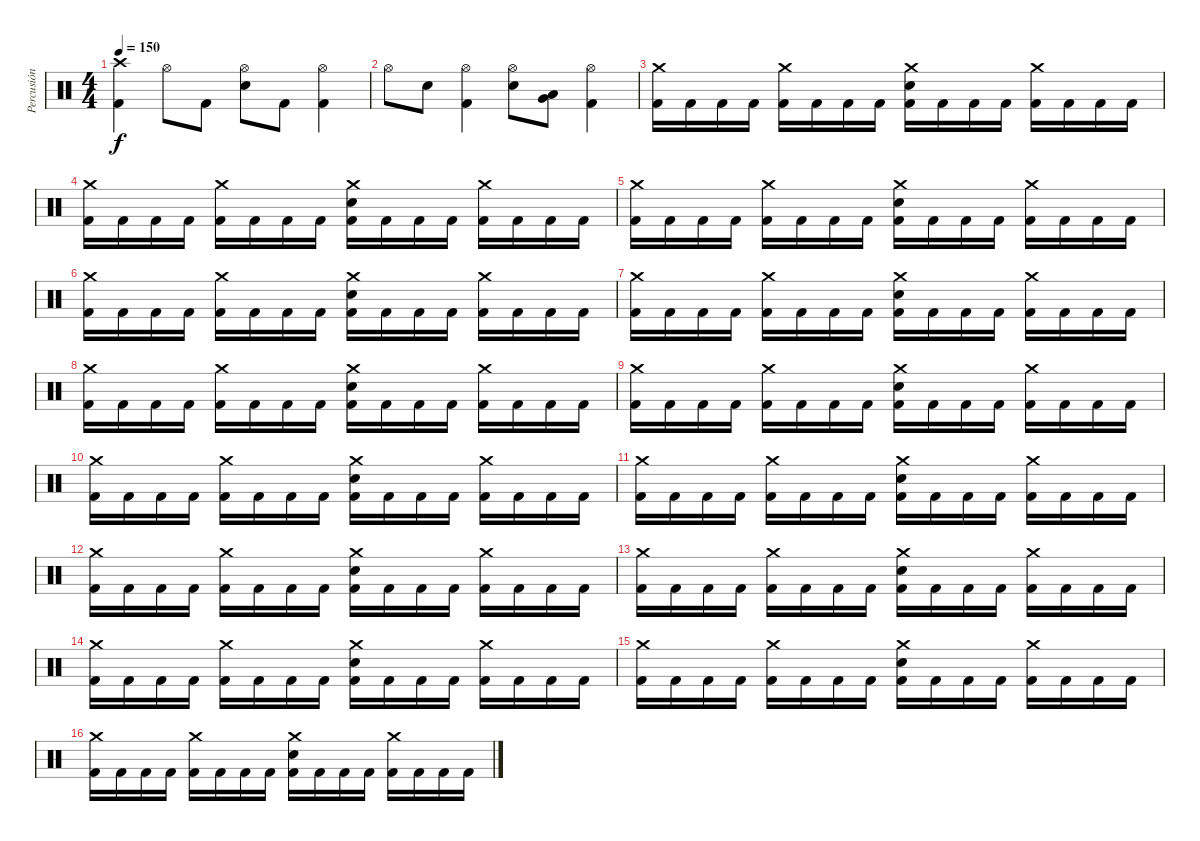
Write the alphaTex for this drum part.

\track ("Percusión" "Percusión") {instrument percussion}
\staff {score}
\articulation defaults
\ts (4 4)
\tempo 150
\clef neutral
\ks c
("Crash high (hit)" "Kick (hit) 2").4{dy f} "Hi-Hat (open)".8 "Kick (hit) 2".8 ("Hi-Hat (open)" "Snare (hit) 2").8 "Kick (hit) 2".8 ("Hi-Hat (open)" "Kick (hit) 2").4 |
"Hi-Hat (open)".8 "Snare (hit) 2".8 ("Hi-Hat (open)" "Kick (hit) 2").4 ("Hi-Hat (open)" "Snare (hit) 2").8 ("Low Floor Tom (hit)" "Very Low Tom (hit)").8 ("Hi-Hat (open)" "Kick (hit) 2").4 |
("Crash medium (hit)" "Kick (hit) 2").16 "Kick (hit) 2".16 "Kick (hit) 2".16 "Kick (hit) 2".16 ("Crash medium (hit)" "Kick (hit) 2").16 "Kick (hit) 2".16 "Kick (hit) 2".16 "Kick (hit) 2".16 ("Snare (hit) 2" "Crash medium (hit)" "Kick (hit) 2").16 "Kick (hit) 2".16 "Kick (hit) 2".16 "Kick (hit) 2".16 ("Crash medium (hit)" "Kick (hit) 2").16 "Kick (hit) 2".16 "Kick (hit) 2".16 "Kick (hit) 2".16 |
("Crash medium (hit)" "Kick (hit) 2").16 "Kick (hit) 2".16 "Kick (hit) 2".16 "Kick (hit) 2".16 ("Crash medium (hit)" "Kick (hit) 2").16 "Kick (hit) 2".16 "Kick (hit) 2".16 "Kick (hit) 2".16 ("Snare (hit) 2" "Crash medium (hit)" "Kick (hit) 2").16 "Kick (hit) 2".16 "Kick (hit) 2".16 "Kick (hit) 2".16 ("Crash medium (hit)" "Kick (hit) 2").16 "Kick (hit) 2".16 "Kick (hit) 2".16 "Kick (hit) 2".16 |
("Crash medium (hit)" "Kick (hit) 2").16 "Kick (hit) 2".16 "Kick (hit) 2".16 "Kick (hit) 2".16 ("Crash medium (hit)" "Kick (hit) 2").16 "Kick (hit) 2".16 "Kick (hit) 2".16 "Kick (hit) 2".16 ("Snare (hit) 2" "Crash medium (hit)" "Kick (hit) 2").16 "Kick (hit) 2".16 "Kick (hit) 2".16 "Kick (hit) 2".16 ("Crash medium (hit)" "Kick (hit) 2").16 "Kick (hit) 2".16 "Kick (hit) 2".16 "Kick (hit) 2".16 |
("Crash medium (hit)" "Kick (hit) 2").16 "Kick (hit) 2".16 "Kick (hit) 2".16 "Kick (hit) 2".16 ("Crash medium (hit)" "Kick (hit) 2").16 "Kick (hit) 2".16 "Kick (hit) 2".16 "Kick (hit) 2".16 ("Snare (hit) 2" "Crash medium (hit)" "Kick (hit) 2").16 "Kick (hit) 2".16 "Kick (hit) 2".16 "Kick (hit) 2".16 ("Crash medium (hit)" "Kick (hit) 2").16 "Kick (hit) 2".16 "Kick (hit) 2".16 "Kick (hit) 2".16 |
("Crash medium (hit)" "Kick (hit) 2").16 "Kick (hit) 2".16 "Kick (hit) 2".16 "Kick (hit) 2".16 ("Crash medium (hit)" "Kick (hit) 2").16 "Kick (hit) 2".16 "Kick (hit) 2".16 "Kick (hit) 2".16 ("Snare (hit) 2" "Crash medium (hit)" "Kick (hit) 2").16 "Kick (hit) 2".16 "Kick (hit) 2".16 "Kick (hit) 2".16 ("Crash medium (hit)" "Kick (hit) 2").16 "Kick (hit) 2".16 "Kick (hit) 2".16 "Kick (hit) 2".16 |
("Crash medium (hit)" "Kick (hit) 2").16 "Kick (hit) 2".16 "Kick (hit) 2".16 "Kick (hit) 2".16 ("Crash medium (hit)" "Kick (hit) 2").16 "Kick (hit) 2".16 "Kick (hit) 2".16 "Kick (hit) 2".16 ("Snare (hit) 2" "Crash medium (hit)" "Kick (hit) 2").16 "Kick (hit) 2".16 "Kick (hit) 2".16 "Kick (hit) 2".16 ("Crash medium (hit)" "Kick (hit) 2").16 "Kick (hit) 2".16 "Kick (hit) 2".16 "Kick (hit) 2".16 |
("Crash medium (hit)" "Kick (hit) 2").16 "Kick (hit) 2".16 "Kick (hit) 2".16 "Kick (hit) 2".16 ("Crash medium (hit)" "Kick (hit) 2").16 "Kick (hit) 2".16 "Kick (hit) 2".16 "Kick (hit) 2".16 ("Snare (hit) 2" "Crash medium (hit)" "Kick (hit) 2").16 "Kick (hit) 2".16 "Kick (hit) 2".16 "Kick (hit) 2".16 ("Crash medium (hit)" "Kick (hit) 2").16 "Kick (hit) 2".16 "Kick (hit) 2".16 "Kick (hit) 2".16 |
("Crash medium (hit)" "Kick (hit) 2").16 "Kick (hit) 2".16 "Kick (hit) 2".16 "Kick (hit) 2".16 ("Crash medium (hit)" "Kick (hit) 2").16 "Kick (hit) 2".16 "Kick (hit) 2".16 "Kick (hit) 2".16 ("Snare (hit) 2" "Crash medium (hit)" "Kick (hit) 2").16 "Kick (hit) 2".16 "Kick (hit) 2".16 "Kick (hit) 2".16 ("Crash medium (hit)" "Kick (hit) 2").16 "Kick (hit) 2".16 "Kick (hit) 2".16 "Kick (hit) 2".16 |
("Crash medium (hit)" "Kick (hit) 2").16 "Kick (hit) 2".16 "Kick (hit) 2".16 "Kick (hit) 2".16 ("Crash medium (hit)" "Kick (hit) 2").16 "Kick (hit) 2".16 "Kick (hit) 2".16 "Kick (hit) 2".16 ("Snare (hit) 2" "Crash medium (hit)" "Kick (hit) 2").16 "Kick (hit) 2".16 "Kick (hit) 2".16 "Kick (hit) 2".16 ("Crash medium (hit)" "Kick (hit) 2").16 "Kick (hit) 2".16 "Kick (hit) 2".16 "Kick (hit) 2".16 |
("Crash medium (hit)" "Kick (hit) 2").16 "Kick (hit) 2".16 "Kick (hit) 2".16 "Kick (hit) 2".16 ("Crash medium (hit)" "Kick (hit) 2").16 "Kick (hit) 2".16 "Kick (hit) 2".16 "Kick (hit) 2".16 ("Snare (hit) 2" "Crash medium (hit)" "Kick (hit) 2").16 "Kick (hit) 2".16 "Kick (hit) 2".16 "Kick (hit) 2".16 ("Crash medium (hit)" "Kick (hit) 2").16 "Kick (hit) 2".16 "Kick (hit) 2".16 "Kick (hit) 2".16 |
("Crash medium (hit)" "Kick (hit) 2").16 "Kick (hit) 2".16 "Kick (hit) 2".16 "Kick (hit) 2".16 ("Crash medium (hit)" "Kick (hit) 2").16 "Kick (hit) 2".16 "Kick (hit) 2".16 "Kick (hit) 2".16 ("Snare (hit) 2" "Crash medium (hit)" "Kick (hit) 2").16 "Kick (hit) 2".16 "Kick (hit) 2".16 "Kick (hit) 2".16 ("Crash medium (hit)" "Kick (hit) 2").16 "Kick (hit) 2".16 "Kick (hit) 2".16 "Kick (hit) 2".16 |
("Crash medium (hit)" "Kick (hit) 2").16 "Kick (hit) 2".16 "Kick (hit) 2".16 "Kick (hit) 2".16 ("Crash medium (hit)" "Kick (hit) 2").16 "Kick (hit) 2".16 "Kick (hit) 2".16 "Kick (hit) 2".16 ("Snare (hit) 2" "Crash medium (hit)" "Kick (hit) 2").16 "Kick (hit) 2".16 "Kick (hit) 2".16 "Kick (hit) 2".16 ("Crash medium (hit)" "Kick (hit) 2").16 "Kick (hit) 2".16 "Kick (hit) 2".16 "Kick (hit) 2".16 |
("Crash medium (hit)" "Kick (hit) 2").16 "Kick (hit) 2".16 "Kick (hit) 2".16 "Kick (hit) 2".16 ("Crash medium (hit)" "Kick (hit) 2").16 "Kick (hit) 2".16 "Kick (hit) 2".16 "Kick (hit) 2".16 ("Snare (hit) 2" "Crash medium (hit)" "Kick (hit) 2").16 "Kick (hit) 2".16 "Kick (hit) 2".16 "Kick (hit) 2".16 ("Crash medium (hit)" "Kick (hit) 2").16 "Kick (hit) 2".16 "Kick (hit) 2".16 "Kick (hit) 2".16 |
("Crash medium (hit)" "Kick (hit) 2").16 "Kick (hit) 2".16 "Kick (hit) 2".16 "Kick (hit) 2".16 ("Crash medium (hit)" "Kick (hit) 2").16 "Kick (hit) 2".16 "Kick (hit) 2".16 "Kick (hit) 2".16 ("Snare (hit) 2" "Crash medium (hit)" "Kick (hit) 2").16 "Kick (hit) 2".16 "Kick (hit) 2".16 "Kick (hit) 2".16 ("Crash medium (hit)" "Kick (hit) 2").16 "Kick (hit) 2".16 "Kick (hit) 2".16 "Kick (hit) 2".16
